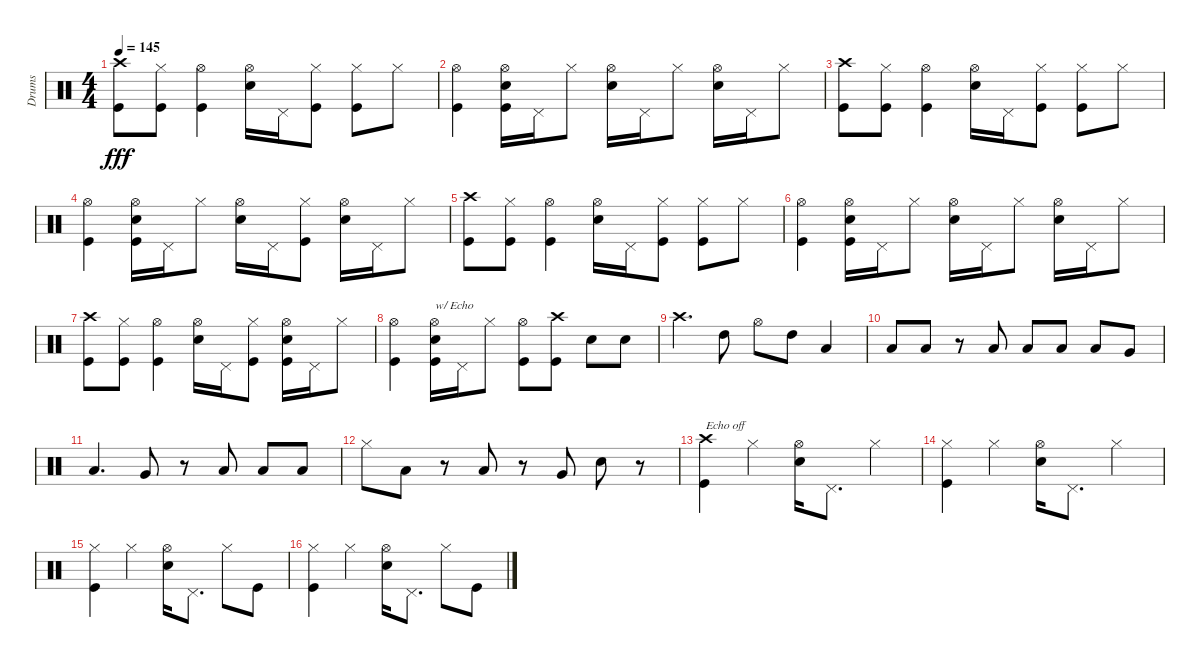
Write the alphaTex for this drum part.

\track ("Drums" "Drums") {instrument percussion}
\staff {score}
\articulation defaults
\ts (4 4)
\tempo 145
\clef neutral
\ks c
("Crash high (hit)" "Kick (hit)").8{dy fff} ("Hi-Hat (closed)" "Kick (hit)").8 ("Hi-Hat (open)" "Kick (hit)").4 ("Hi-Hat (open)" "Snare (hit) 2").16 "Pedal Hi-Hat (hit)".16 ("Hi-Hat (closed)" "Kick (hit)").8 ("Hi-Hat (closed)" "Kick (hit)").8 "Hi-Hat (closed)".8 |
("Hi-Hat (open)" "Kick (hit)").4 ("Hi-Hat (open)" "Snare (hit) 2" "Kick (hit)").16 "Pedal Hi-Hat (hit)".16 "Hi-Hat (closed)".8 ("Hi-Hat (open)" "Snare (hit) 2").16 "Pedal Hi-Hat (hit)".16 "Hi-Hat (closed)".8 ("Hi-Hat (open)" "Snare (hit) 2").16 "Pedal Hi-Hat (hit)".16 "Hi-Hat (closed)".8 |
("Crash high (hit)" "Kick (hit)").8 ("Hi-Hat (closed)" "Kick (hit)").8 ("Hi-Hat (open)" "Kick (hit)").4 ("Hi-Hat (open)" "Snare (hit) 2").16 "Pedal Hi-Hat (hit)".16 ("Hi-Hat (closed)" "Kick (hit)").8 ("Hi-Hat (closed)" "Kick (hit)").8 "Hi-Hat (closed)".8 |
("Hi-Hat (open)" "Kick (hit)").4 ("Hi-Hat (open)" "Snare (hit) 2" "Kick (hit)").16 "Pedal Hi-Hat (hit)".16 "Hi-Hat (closed)".8 ("Hi-Hat (open)" "Snare (hit) 2").16 "Pedal Hi-Hat (hit)".16 ("Hi-Hat (closed)" "Kick (hit)").8 ("Hi-Hat (open)" "Snare (hit) 2").16 "Pedal Hi-Hat (hit)".16 "Hi-Hat (closed)".8 |
("Crash high (hit)" "Kick (hit)").8 ("Hi-Hat (closed)" "Kick (hit)").8 ("Hi-Hat (open)" "Kick (hit)").4 ("Hi-Hat (open)" "Snare (hit) 2").16 "Pedal Hi-Hat (hit)".16 ("Hi-Hat (closed)" "Kick (hit)").8 ("Hi-Hat (closed)" "Kick (hit)").8 "Hi-Hat (closed)".8 |
("Hi-Hat (open)" "Kick (hit)").4 ("Hi-Hat (open)" "Snare (hit) 2" "Kick (hit)").16 "Pedal Hi-Hat (hit)".16 "Hi-Hat (closed)".8 ("Hi-Hat (open)" "Snare (hit) 2").16 "Pedal Hi-Hat (hit)".16 "Hi-Hat (closed)".8 ("Hi-Hat (open)" "Snare (hit) 2").16 "Pedal Hi-Hat (hit)".16 "Hi-Hat (closed)".8 |
("Crash high (hit)" "Kick (hit)").8 ("Hi-Hat (closed)" "Kick (hit)").8 ("Hi-Hat (open)" "Kick (hit)").4 ("Hi-Hat (open)" "Snare (hit) 2").16 "Pedal Hi-Hat (hit)".16 ("Hi-Hat (closed)" "Kick (hit)").8 ("Hi-Hat (open)" "Snare (hit) 2" "Kick (hit)").16 "Pedal Hi-Hat (hit)".16 "Hi-Hat (closed)".8 |
("Hi-Hat (open)" "Kick (hit)").4 ("Hi-Hat (open)" "Snare (hit) 2" "Kick (hit)").16{txt "w/ Echo"} "Pedal Hi-Hat (hit)".16 "Hi-Hat (closed)".8 ("Hi-Hat (open)" "Kick (hit)").8 ("Crash high (hit)" "Kick (hit)").8 "Snare (hit) 2".8 "Snare (hit) 2".8 |
"Crash high (hit)".4{d} "High Tom (hit)".8 "Hi-Hat (open)".8 "High Tom (hit)".8 "Low Tom (hit)".4 |
"Low Tom (hit)".8 "Low Tom (hit)".8 r.8 "Low Tom (hit)".8 "Low Tom (hit)".8 "Low Tom (hit)".8 "Low Tom (hit)".8 "Very Low Tom (hit)".8 |
"Low Floor Tom (hit)".4{d} "Very Low Tom (hit)".8 r.8 "Low Tom (hit)".8 "Low Tom (hit)".8 "Low Tom (hit)".8 |
"Hi-Hat (closed)".8 "Low Floor Tom (hit)".8 r.8 "Low Floor Tom (hit)".8 r.8 "Very Low Tom (hit)".8 "Snare (hit) 2".8 r.8 |
("Crash high (hit)" "Kick (hit)").4{txt "Echo off"} "Hi-Hat (closed)".4 ("Hi-Hat (open)" "Snare (hit) 2").16 "Pedal Hi-Hat (hit)".8{d} "Hi-Hat (closed)".4 |
("Hi-Hat (closed)" "Kick (hit)").4 "Hi-Hat (closed)".4 ("Hi-Hat (open)" "Snare (hit) 2").16 "Pedal Hi-Hat (hit)".8{d} "Hi-Hat (closed)".4 |
("Hi-Hat (closed)" "Kick (hit)").4 "Hi-Hat (closed)".4 ("Hi-Hat (open)" "Snare (hit) 2").16 "Pedal Hi-Hat (hit)".8{d} "Hi-Hat (closed)".8 "Kick (hit)".8 |
("Hi-Hat (closed)" "Kick (hit)").4 "Hi-Hat (closed)".4 ("Hi-Hat (open)" "Snare (hit) 2").16 "Pedal Hi-Hat (hit)".8{d} "Hi-Hat (closed)".8 "Kick (hit)".8
